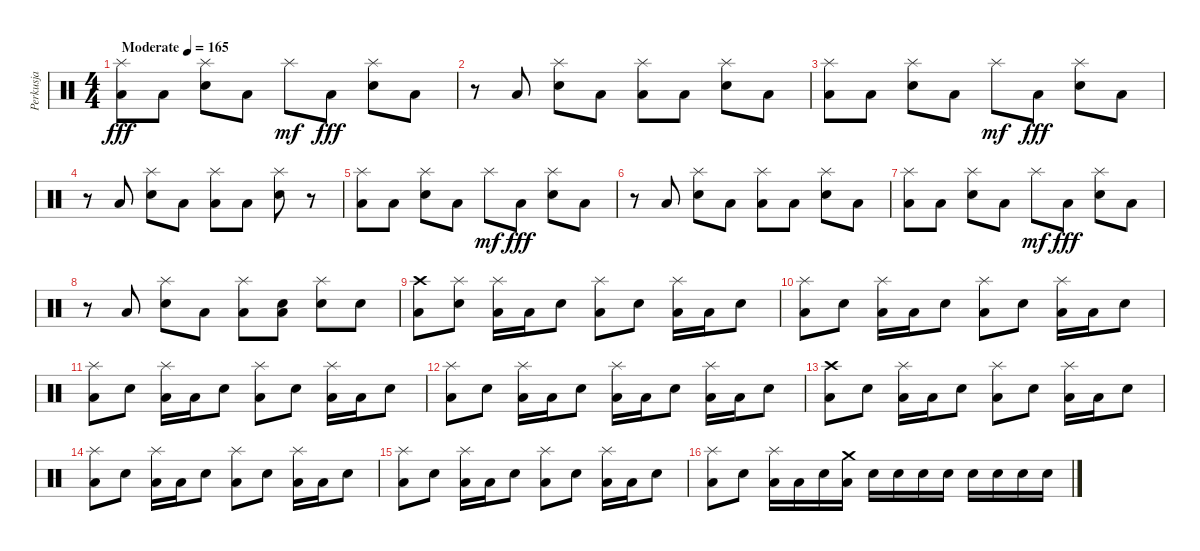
\track ("Perkusja" "Perkusja") {instrument percussion}
\staff {score}
\articulation defaults
\ts (4 4)
\tempo (165 "Moderate")
\clef neutral
\ks c
("Splash (hit)" "Low Tom (hit)").8{dy fff} "Low Tom (hit)".8 ("Splash (hit)" "Electric Snare (hit)").8 "Low Tom (hit)".8 "Splash (hit)".8{dy mf} "Low Tom (hit)".8{dy fff} ("Splash (hit)" "Electric Snare (hit)").8 "Low Tom (hit)".8 |
r.8 "Low Tom (hit)".8 ("Splash (hit)" "Electric Snare (hit)").8 "Low Tom (hit)".8 ("Splash (hit)" "Low Tom (hit)").8 "Low Tom (hit)".8 ("Splash (hit)" "Electric Snare (hit)").8 "Low Tom (hit)".8 |
("Splash (hit)" "Low Tom (hit)").8 "Low Tom (hit)".8 ("Splash (hit)" "Electric Snare (hit)").8 "Low Tom (hit)".8 "Splash (hit)".8{dy mf} "Low Tom (hit)".8{dy fff} ("Splash (hit)" "Electric Snare (hit)").8 "Low Tom (hit)".8 |
r.8 "Low Tom (hit)".8 ("Splash (hit)" "Electric Snare (hit)").8 "Low Tom (hit)".8 ("Splash (hit)" "Low Tom (hit)").8 "Low Tom (hit)".8 ("Splash (hit)" "Electric Snare (hit)").8 r.8 |
("Splash (hit)" "Low Tom (hit)").8 "Low Tom (hit)".8 ("Splash (hit)" "Electric Snare (hit)").8 "Low Tom (hit)".8 "Splash (hit)".8{dy mf} "Low Tom (hit)".8{dy fff} ("Splash (hit)" "Electric Snare (hit)").8 "Low Tom (hit)".8 |
r.8 "Low Tom (hit)".8 ("Splash (hit)" "Electric Snare (hit)").8 "Low Tom (hit)".8 ("Splash (hit)" "Low Tom (hit)").8 "Low Tom (hit)".8 ("Splash (hit)" "Electric Snare (hit)").8 "Low Tom (hit)".8 |
("Splash (hit)" "Low Tom (hit)").8 "Low Tom (hit)".8 ("Splash (hit)" "Electric Snare (hit)").8 "Low Tom (hit)".8 "Splash (hit)".8{dy mf} "Low Tom (hit)".8{dy fff} ("Splash (hit)" "Electric Snare (hit)").8 "Low Tom (hit)".8 |
r.8 "Low Tom (hit)".8 ("Splash (hit)" "Electric Snare (hit)").8 "Low Tom (hit)".8 ("Splash (hit)" "Low Tom (hit)").8 ("Electric Snare (hit)" "Low Tom (hit)").8 ("Splash (hit)" "Electric Snare (hit)").8 "Electric Snare (hit)".8 |
("Crash high (hit)" "Low Tom (hit)").8 ("Splash (hit)" "Electric Snare (hit)").8 ("Splash (hit)" "Low Tom (hit)").16 "Low Tom (hit)".16 "Electric Snare (hit)".8 ("Splash (hit)" "Low Tom (hit)").8 "Electric Snare (hit)".8 ("Splash (hit)" "Low Tom (hit)").16 "Low Tom (hit)".16 "Electric Snare (hit)".8 |
("Splash (hit)" "Low Tom (hit)").8 "Electric Snare (hit)".8 ("Splash (hit)" "Low Tom (hit)").16 "Low Tom (hit)".16 "Electric Snare (hit)".8 ("Splash (hit)" "Low Tom (hit)").8 "Electric Snare (hit)".8 ("Splash (hit)" "Low Tom (hit)").16 "Low Tom (hit)".16 "Electric Snare (hit)".8 |
("Splash (hit)" "Low Tom (hit)").8 "Electric Snare (hit)".8 ("Splash (hit)" "Low Tom (hit)").16 "Low Tom (hit)".16 "Electric Snare (hit)".8 ("Splash (hit)" "Low Tom (hit)").8 "Electric Snare (hit)".8 ("Splash (hit)" "Low Tom (hit)").16 "Low Tom (hit)".16 "Electric Snare (hit)".8 |
("Splash (hit)" "Low Tom (hit)").8 "Electric Snare (hit)".8 ("Splash (hit)" "Low Tom (hit)").16 "Low Tom (hit)".16 "Electric Snare (hit)".8 ("Splash (hit)" "Low Tom (hit)").16 "Low Tom (hit)".16 "Electric Snare (hit)".8 ("Splash (hit)" "Low Tom (hit)").16 "Low Tom (hit)".16 "Electric Snare (hit)".8 |
("Crash high (hit)" "Low Tom (hit)").8 "Electric Snare (hit)".8 ("Splash (hit)" "Low Tom (hit)").16 "Low Tom (hit)".16 "Electric Snare (hit)".8 ("Splash (hit)" "Low Tom (hit)").8 "Electric Snare (hit)".8 ("Splash (hit)" "Low Tom (hit)").16 "Low Tom (hit)".16 "Electric Snare (hit)".8 |
("Splash (hit)" "Low Tom (hit)").8 "Electric Snare (hit)".8 ("Splash (hit)" "Low Tom (hit)").16 "Low Tom (hit)".16 "Electric Snare (hit)".8 ("Splash (hit)" "Low Tom (hit)").8 "Electric Snare (hit)".8 ("Splash (hit)" "Low Tom (hit)").16 "Low Tom (hit)".16 "Electric Snare (hit)".8 |
("Splash (hit)" "Low Tom (hit)").8 "Electric Snare (hit)".8 ("Splash (hit)" "Low Tom (hit)").16 "Low Tom (hit)".16 "Electric Snare (hit)".8 ("Splash (hit)" "Low Tom (hit)").8 "Electric Snare (hit)".8 ("Splash (hit)" "Low Tom (hit)").16 "Low Tom (hit)".16 "Electric Snare (hit)".8 |
("Splash (hit)" "Low Tom (hit)").8 "Electric Snare (hit)".8 ("Splash (hit)" "Low Tom (hit)").16 "Low Tom (hit)".16 "Electric Snare (hit)".16 ("Crash medium (hit)" "Low Tom (hit)").16 "Electric Snare (hit)".16 "Electric Snare (hit)".16 "Electric Snare (hit)".16 "Electric Snare (hit)".16 "Electric Snare (hit)".16 "Electric Snare (hit)".16 "Electric Snare (hit)".16 "Electric Snare (hit)".16
